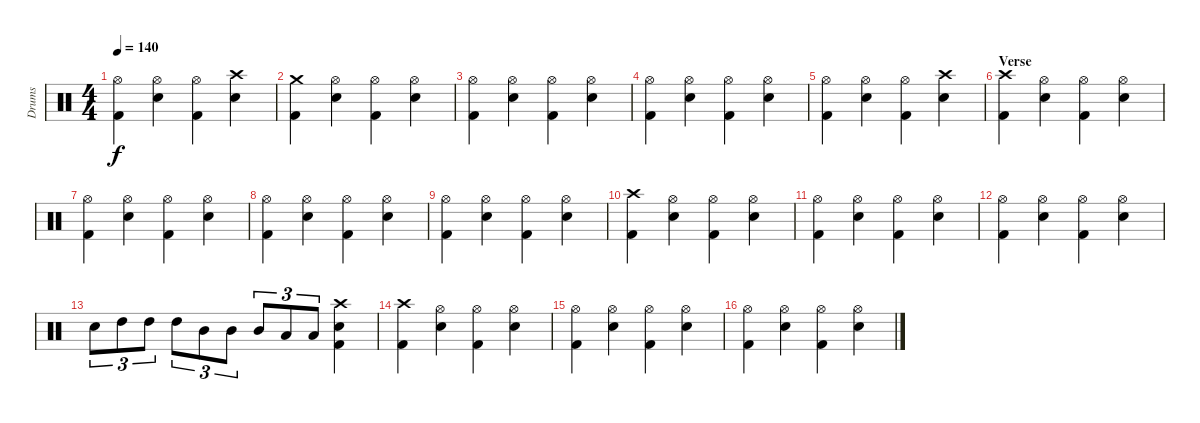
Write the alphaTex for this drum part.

\track ("Drums" "Drums") {instrument percussion}
\staff {score}
\articulation defaults
\ts (4 4)
\tempo 140
\clef neutral
\ks c
("Hi-Hat (open)" "Kick (hit) 2").4{dy f} ("Hi-Hat (open)" "Electric Snare (hit)").4 ("Hi-Hat (open)" "Kick (hit) 2").4 ("Crash high (hit)" "Electric Snare (hit)").4 |
("Crash medium (hit)" "Kick (hit) 2").4 ("Hi-Hat (open)" "Electric Snare (hit)").4 ("Hi-Hat (open)" "Kick (hit) 2").4 ("Hi-Hat (open)" "Electric Snare (hit)").4 |
("Hi-Hat (open)" "Kick (hit) 2").4 ("Hi-Hat (open)" "Electric Snare (hit)").4 ("Hi-Hat (open)" "Kick (hit) 2").4 ("Hi-Hat (open)" "Electric Snare (hit)").4 |
("Hi-Hat (open)" "Kick (hit) 2").4 ("Hi-Hat (open)" "Electric Snare (hit)").4 ("Hi-Hat (open)" "Kick (hit) 2").4 ("Hi-Hat (open)" "Electric Snare (hit)").4 |
("Hi-Hat (open)" "Kick (hit) 2").4 ("Hi-Hat (open)" "Electric Snare (hit)").4 ("Hi-Hat (open)" "Kick (hit) 2").4 ("Crash high (hit)" "Electric Snare (hit)").4 |
\section ("" "Verse")
("Crash high (hit)" "Kick (hit) 2").4 ("Hi-Hat (open)" "Electric Snare (hit)").4 ("Hi-Hat (open)" "Kick (hit) 2").4 ("Hi-Hat (open)" "Electric Snare (hit)").4 |
("Hi-Hat (open)" "Kick (hit) 2").4 ("Hi-Hat (open)" "Electric Snare (hit)").4 ("Hi-Hat (open)" "Kick (hit) 2").4 ("Hi-Hat (open)" "Electric Snare (hit)").4 |
("Hi-Hat (open)" "Kick (hit) 2").4 ("Hi-Hat (open)" "Electric Snare (hit)").4 ("Hi-Hat (open)" "Kick (hit) 2").4 ("Hi-Hat (open)" "Electric Snare (hit)").4 |
("Hi-Hat (open)" "Kick (hit) 2").4 ("Hi-Hat (open)" "Electric Snare (hit)").4 ("Hi-Hat (open)" "Kick (hit) 2").4 ("Hi-Hat (open)" "Electric Snare (hit)").4 |
("Crash high (hit)" "Kick (hit) 2").4 ("Hi-Hat (open)" "Electric Snare (hit)").4 ("Hi-Hat (open)" "Kick (hit) 2").4 ("Hi-Hat (open)" "Electric Snare (hit)").4 |
("Hi-Hat (open)" "Kick (hit) 2").4 ("Hi-Hat (open)" "Electric Snare (hit)").4 ("Hi-Hat (open)" "Kick (hit) 2").4 ("Hi-Hat (open)" "Electric Snare (hit)").4 |
("Hi-Hat (open)" "Kick (hit) 2").4 ("Hi-Hat (open)" "Electric Snare (hit)").4 ("Hi-Hat (open)" "Kick (hit) 2").4 ("Hi-Hat (open)" "Electric Snare (hit)").4 |
"Electric Snare (hit)".8{tu (3 2)} "High Tom (hit)".8{tu (3 2)} "High Tom (hit)".8{tu (3 2)} "High Tom (hit)".8{tu (3 2)} "Mid Tom (hit)".8{tu (3 2)} "Mid Tom (hit)".8{tu (3 2)} "Mid Tom (hit)".8{tu (3 2)} "Low Tom (hit)".8{tu (3 2)} "Low Tom (hit)".8{tu (3 2)} ("Crash high (hit)" "Electric Snare (hit)" "Kick (hit) 2").4 |
("Crash high (hit)" "Kick (hit) 2").4 ("Hi-Hat (open)" "Electric Snare (hit)").4 ("Hi-Hat (open)" "Kick (hit) 2").4 ("Hi-Hat (open)" "Electric Snare (hit)").4 |
("Hi-Hat (open)" "Kick (hit) 2").4 ("Hi-Hat (open)" "Electric Snare (hit)").4 ("Hi-Hat (open)" "Kick (hit) 2").4 ("Hi-Hat (open)" "Electric Snare (hit)").4 |
("Hi-Hat (open)" "Kick (hit) 2").4 ("Hi-Hat (open)" "Electric Snare (hit)").4 ("Hi-Hat (open)" "Kick (hit) 2").4 ("Hi-Hat (open)" "Electric Snare (hit)").4
